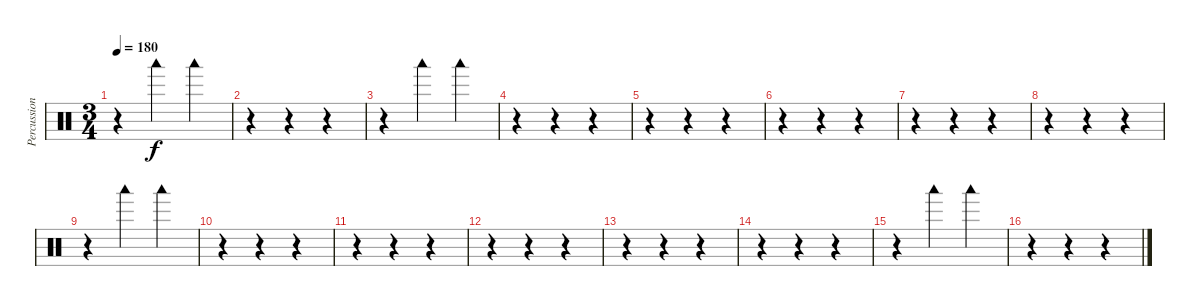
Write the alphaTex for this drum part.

\track ("Percussions" "Percussion") {instrument percussion}
\staff {score}
\articulation defaults
\ts (3 4)
\tempo 180
\clef neutral
\ks c
r.4{dy f} "Woodblock low (hit)".4 "Woodblock low (hit)".4 |
r.4 r.4 r.4 |
r.4 "Woodblock low (hit)".4 "Woodblock low (hit)".4 |
r.4 r.4 r.4 |
r.4 r.4 r.4 |
r.4 r.4 r.4 |
r.4 r.4 r.4 |
r.4 r.4 r.4 |
r.4 "Woodblock low (hit)".4 "Woodblock low (hit)".4 |
r.4 r.4 r.4 |
r.4 r.4 r.4 |
r.4 r.4 r.4 |
r.4 r.4 r.4 |
r.4 r.4 r.4 |
r.4 "Woodblock low (hit)".4 "Woodblock low (hit)".4 |
r.4 r.4 r.4
